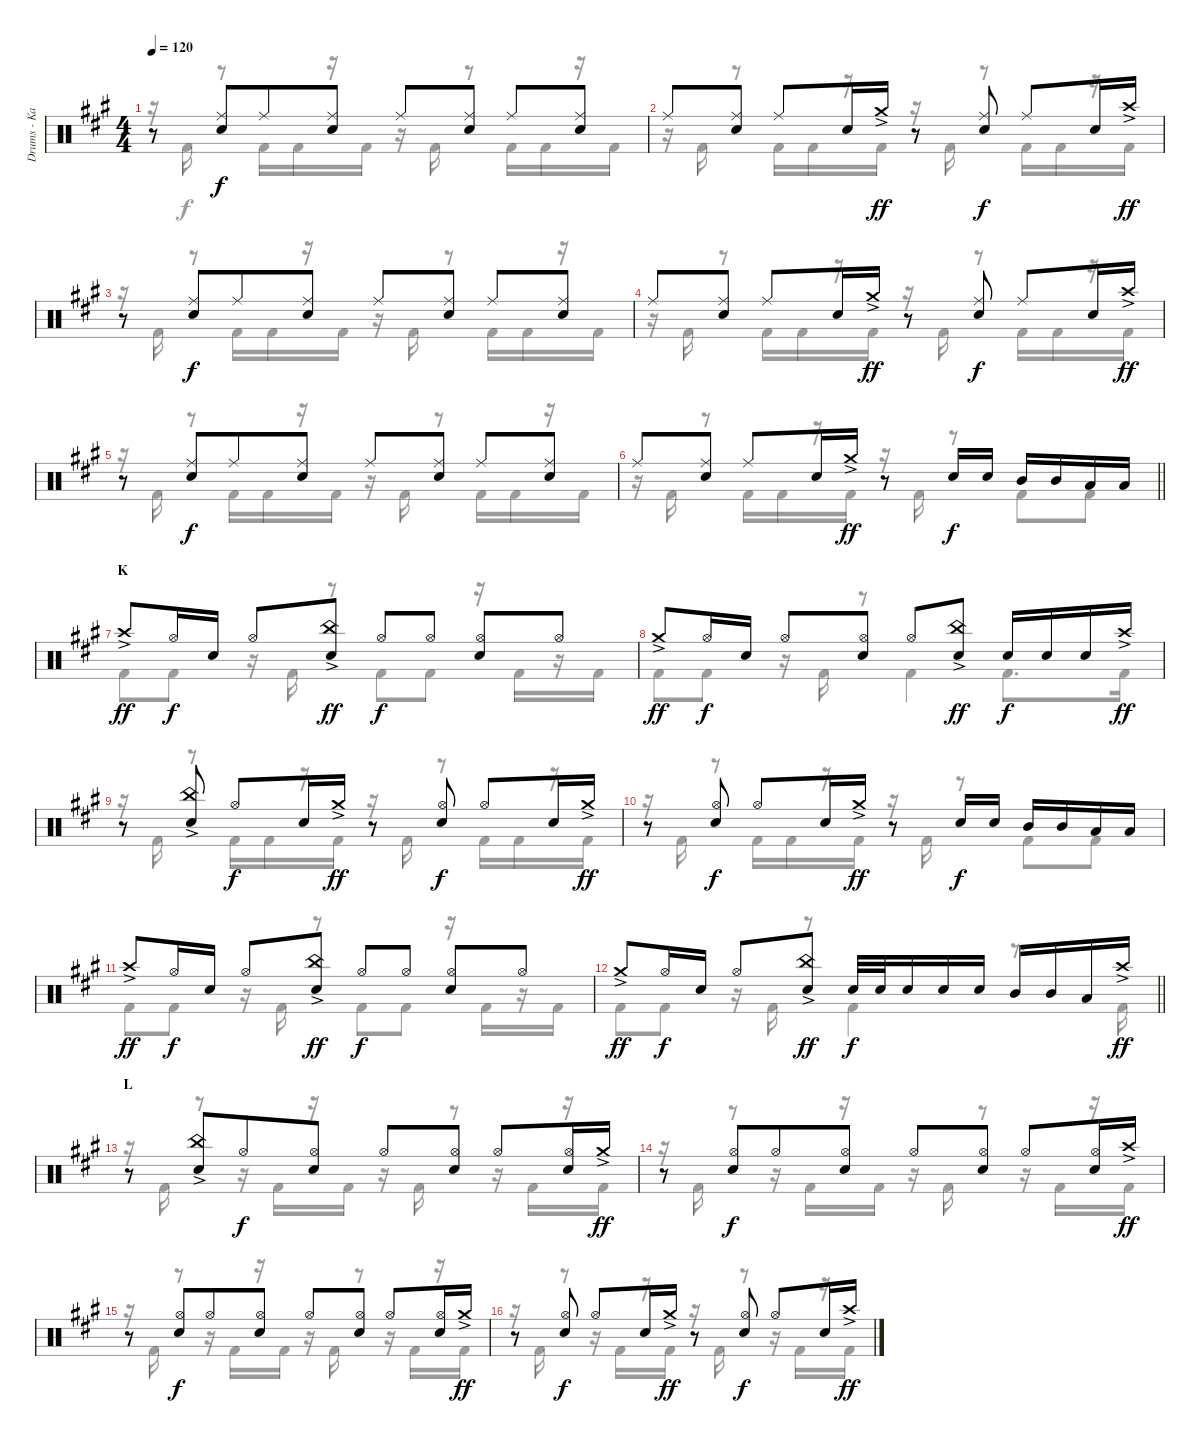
\track ("Drums - Kai" "Drums - Ka") {instrument percussion}
\staff {score}
\articulation defaults
\voice
\ts (4 4)
\tempo 120
\clef neutral
\ks a
r.8{dy ff} ("Ride (middle)" "Snare (hit) 2").8{dy f beam merge} "Ride (middle)".8 ("Ride (middle)" "Snare (hit) 2").8 "Ride (middle)".8 ("Ride (middle)" "Snare (hit) 2").8 "Ride (middle)".8 ("Ride (middle)" "Snare (hit) 2").8 |
"Ride (middle)".8 ("Ride (middle)" "Snare (hit) 2").8 "Ride (middle)".8 "Snare (hit) 2".16 "Crash medium (hit)"{ac}.16{dy ff} r.8 ("Ride (middle)" "Snare (hit) 2").8{dy f} "Ride (middle)".8 "Snare (hit) 2".16 "Crash high (hit)"{ac}.16{dy ff} |
r.8 ("Ride (middle)" "Snare (hit) 2").8{dy f beam merge} "Ride (middle)".8 ("Ride (middle)" "Snare (hit) 2").8 "Ride (middle)".8 ("Ride (middle)" "Snare (hit) 2").8 "Ride (middle)".8 ("Ride (middle)" "Snare (hit) 2").8 |
"Ride (middle)".8 ("Ride (middle)" "Snare (hit) 2").8 "Ride (middle)".8 "Snare (hit) 2".16 "Crash medium (hit)"{ac}.16{dy ff} r.8 ("Ride (middle)" "Snare (hit) 2").8{dy f} "Ride (middle)".8 "Snare (hit) 2".16 "Crash high (hit)"{ac}.16{dy ff} |
r.8 ("Ride (middle)" "Snare (hit) 2").8{dy f beam merge} "Ride (middle)".8 ("Ride (middle)" "Snare (hit) 2").8 "Ride (middle)".8 ("Ride (middle)" "Snare (hit) 2").8 "Ride (middle)".8 ("Ride (middle)" "Snare (hit) 2").8 |
\barLineRight lightlight "Ride (middle)".8
("Ride (middle)" "Snare (hit) 2").8 "Ride (middle)".8 "Snare (hit) 2".16 "Crash medium (hit)"{ac}.16{dy ff} r.8 "Snare (hit) 2".16{dy f} "Snare (hit) 2".16 "Mid Tom (hit)".16 "Mid Tom (hit)".16 "Low Tom (hit)".16 "Low Tom (hit)".16 |
\section ("" "K")
"Crash high (hit)"{ac}.8{dy ff} "Hi-Hat (open)".16{dy f} "Snare (hit) 2".16 "Hi-Hat (open)".8 ("China (hit)"{ac} "Snare (hit) 2").8{dy ff} "Hi-Hat (open)".8{dy f} "Hi-Hat (open)".8 ("Hi-Hat (open)" "Snare (hit) 2").8 "Hi-Hat (open)".8 |
"Crash medium (hit)"{ac}.8{dy ff} "Hi-Hat (open)".16{dy f} "Snare (hit) 2".16 "Hi-Hat (open)".8 ("Hi-Hat (open)" "Snare (hit) 2").8 "Hi-Hat (open)".8 ("China (hit)"{ac} "Snare (hit) 2").8{dy ff} "Snare (hit) 2".16{dy f} "Snare (hit) 2".16 "Snare (hit) 2".16 "Crash high (hit)"{ac}.16{dy ff} |
r.8 ("China (hit)"{ac} "Snare (hit) 2").8 "Hi-Hat (open)".8{dy f} "Snare (hit) 2".16 "Crash medium (hit)"{ac}.16{dy ff} r.8 ("Hi-Hat (open)" "Snare (hit) 2").8{dy f} "Hi-Hat (open)".8 "Snare (hit) 2".16 "Crash medium (hit)"{ac}.16{dy ff} |
r.8 ("Hi-Hat (open)" "Snare (hit) 2").8{dy f} "Hi-Hat (open)".8 "Snare (hit) 2".16 "Crash medium (hit)"{ac}.16{dy ff} r.8 "Snare (hit) 2".16{dy f} "Snare (hit) 2".16 "Mid Tom (hit)".16 "Mid Tom (hit)".16 "Low Tom (hit)".16 "Low Tom (hit)".16 |
"Crash high (hit)"{ac}.8{dy ff} "Hi-Hat (open)".16{dy f} "Snare (hit) 2".16 "Hi-Hat (open)".8 ("China (hit)"{ac} "Snare (hit) 2").8{dy ff} "Hi-Hat (open)".8{dy f} "Hi-Hat (open)".8 ("Hi-Hat (open)" "Snare (hit) 2").8 "Hi-Hat (open)".8 |
\barLineRight lightlight "Crash medium (hit)"{ac}.8{dy ff} "Hi-Hat (open)".16{dy f} "Snare (hit) 2".16 "Hi-Hat (open)".8
("China (hit)"{ac} "Snare (hit) 2").8{dy ff} "Snare (hit) 2".32{dy f} "Snare (hit) 2".32 "Snare (hit) 2".16 "Snare (hit) 2".16 "Snare (hit) 2".16 "Mid Tom (hit)".16 "Mid Tom (hit)".16 "Low Tom (hit)".16 "Crash high (hit)"{ac}.16{dy ff} |
\section ("" "L")
r.8 ("China (hit)"{ac} "Snare (hit) 2").8{beam merge} "Hi-Hat (open)".8{dy f} ("Hi-Hat (open)" "Snare (hit) 2").8 "Hi-Hat (open)".8 ("Hi-Hat (open)" "Snare (hit) 2").8 "Hi-Hat (open)".8 ("Hi-Hat (open)" "Snare (hit) 2").16 "Crash medium (hit)"{ac}.16{dy ff} |
r.8 ("Hi-Hat (open)" "Snare (hit) 2").8{dy f beam merge} "Hi-Hat (open)".8 ("Hi-Hat (open)" "Snare (hit) 2").8 "Hi-Hat (open)".8 ("Hi-Hat (open)" "Snare (hit) 2").8 "Hi-Hat (open)".8 ("Hi-Hat (open)" "Snare (hit) 2").16 "Crash high (hit)"{ac}.16{dy ff} |
r.8 ("Hi-Hat (open)" "Snare (hit) 2").8{dy f beam merge} "Hi-Hat (open)".8 ("Hi-Hat (open)" "Snare (hit) 2").8 "Hi-Hat (open)".8 ("Hi-Hat (open)" "Snare (hit) 2").8 "Hi-Hat (open)".8 ("Hi-Hat (open)" "Snare (hit) 2").16 "Crash medium (hit)"{ac}.16{dy ff} |
r.8 ("Hi-Hat (open)" "Snare (hit) 2").8{dy f} "Hi-Hat (open)".8 "Snare (hit) 2".16 "Crash medium (hit)"{ac}.16{dy ff} r.8 ("Hi-Hat (open)" "Snare (hit) 2").8{dy f} "Hi-Hat (open)".8 "Snare (hit) 2".16 "Crash high (hit)"{ac}.16{dy ff}
\voice
\clef neutral
\ottava regular
\simile none
\ks a
r.16{dy f} "Kick (hit) 2".16 r.8 "Kick (hit) 2".16 "Kick (hit) 2".16 r.16 "Kick (hit) 2".16 r.16 "Kick (hit) 2".16 r.8 "Kick (hit) 2".16 "Kick (hit) 2".16 r.16 "Kick (hit) 2".16 |
r.16 "Kick (hit) 2".16 r.8 "Kick (hit) 2".16 "Kick (hit) 2".16 r.16 "Kick (hit) 2".16 r.16 "Kick (hit) 2".16 r.8 "Kick (hit) 2".16 "Kick (hit) 2".16 r.16 "Kick (hit) 2".16 |
r.16 "Kick (hit) 2".16 r.8 "Kick (hit) 2".16 "Kick (hit) 2".16 r.16 "Kick (hit) 2".16 r.16 "Kick (hit) 2".16 r.8 "Kick (hit) 2".16 "Kick (hit) 2".16 r.16 "Kick (hit) 2".16 |
r.16 "Kick (hit) 2".16 r.8 "Kick (hit) 2".16 "Kick (hit) 2".16 r.16 "Kick (hit) 2".16 r.16 "Kick (hit) 2".16 r.8 "Kick (hit) 2".16 "Kick (hit) 2".16 r.16 "Kick (hit) 2".16 |
r.16 "Kick (hit) 2".16 r.8 "Kick (hit) 2".16 "Kick (hit) 2".16 r.16 "Kick (hit) 2".16 r.16 "Kick (hit) 2".16 r.8 "Kick (hit) 2".16 "Kick (hit) 2".16 r.16 "Kick (hit) 2".16 |
\barLineRight lightlight
r.16 "Kick (hit) 2".16 r.8 "Kick (hit) 2".16 "Kick (hit) 2".16 r.16 "Kick (hit) 2".16 r.16 "Kick (hit) 2".16 r.8 "Kick (hit) 2".8 "Kick (hit) 2".8 |
"Kick (hit) 2".8 "Kick (hit) 2".8 r.16 "Kick (hit) 2".16 r.8 "Kick (hit) 2".8 "Kick (hit) 2".8 r.16 "Kick (hit) 2".16 r.16 "Kick (hit) 2".16 |
"Kick (hit) 2".8 "Kick (hit) 2".8 r.16 "Kick (hit) 2".16 r.8 "Kick (hit) 2".4 "Kick (hit) 2".8{d} "Kick (hit) 2".16 |
r.16 "Kick (hit) 2".16 r.8 "Kick (hit) 2".16 "Kick (hit) 2".16 r.16 "Kick (hit) 2".16 r.16 "Kick (hit) 2".16 r.8 "Kick (hit) 2".16 "Kick (hit) 2".16 r.16 "Kick (hit) 2".16 |
r.16 "Kick (hit) 2".16 r.8 "Kick (hit) 2".16 "Kick (hit) 2".16 r.16 "Kick (hit) 2".16 r.16 "Kick (hit) 2".16 r.8 "Kick (hit) 2".8 "Kick (hit) 2".8 |
"Kick (hit) 2".8 "Kick (hit) 2".8 r.16 "Kick (hit) 2".16 r.8 "Kick (hit) 2".8 "Kick (hit) 2".8 r.16 "Kick (hit) 2".16 r.16 "Kick (hit) 2".16 |
\barLineRight lightlight "Kick (hit) 2".8 "Kick (hit) 2".8
r.16 "Kick (hit) 2".16 r.8 "Kick (hit) 2".4 r.8{d} "Kick (hit) 2".16 |
r.16 "Kick (hit) 2".16 r.8 r.16 "Kick (hit) 2".16 r.16 "Kick (hit) 2".16 r.16 "Kick (hit) 2".16 r.8 r.16 "Kick (hit) 2".16 r.16 "Kick (hit) 2".16 |
r.16 "Kick (hit) 2".16 r.8 r.16 "Kick (hit) 2".16 r.16 "Kick (hit) 2".16 r.16 "Kick (hit) 2".16 r.8 r.16 "Kick (hit) 2".16 r.16 "Kick (hit) 2".16 |
r.16 "Kick (hit) 2".16 r.8 r.16 "Kick (hit) 2".16 r.16 "Kick (hit) 2".16 r.16 "Kick (hit) 2".16 r.8 r.16 "Kick (hit) 2".16 r.16 "Kick (hit) 2".16 |
r.16 "Kick (hit) 2".16 r.8 r.16 "Kick (hit) 2".16 r.16 "Kick (hit) 2".16 r.16 "Kick (hit) 2".16 r.8 r.16 "Kick (hit) 2".16 r.16 "Kick (hit) 2".16
